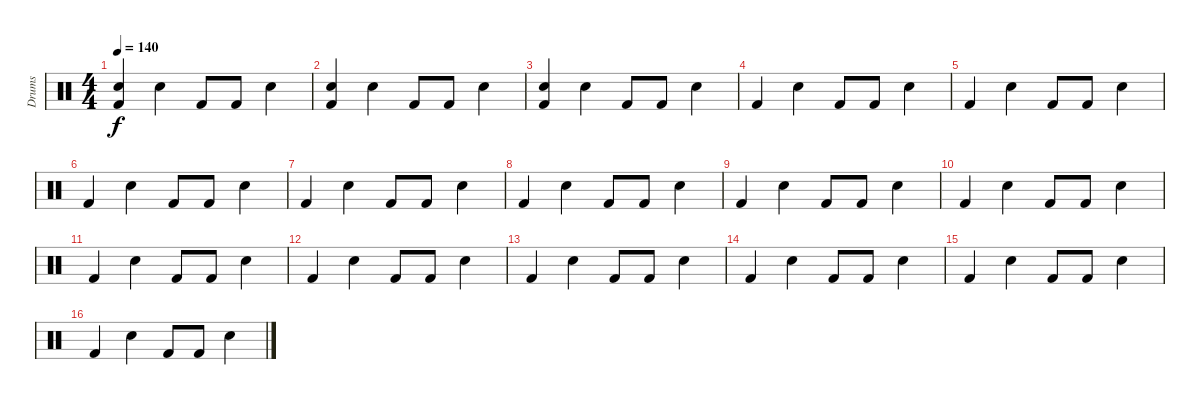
\track ("Drums" "Drums") {instrument percussion}
\staff {score}
\articulation defaults
\ts (4 4)
\tempo 140
\clef neutral
\ks c
("Kick (hit) 2" "Snare (hit) 2").4{dy f} "Snare (hit) 2".4 "Kick (hit) 2".8 "Kick (hit) 2".8 "Snare (hit) 2".4 |
("Kick (hit) 2" "Snare (hit) 2").4 "Snare (hit) 2".4 "Kick (hit) 2".8 "Kick (hit) 2".8 "Snare (hit) 2".4 |
("Kick (hit) 2" "Snare (hit) 2").4 "Snare (hit) 2".4 "Kick (hit) 2".8 "Kick (hit) 2".8 "Snare (hit) 2".4 |
"Kick (hit) 2".4 "Snare (hit) 2".4 "Kick (hit) 2".8 "Kick (hit) 2".8 "Snare (hit) 2".4 |
"Kick (hit) 2".4 "Snare (hit) 2".4 "Kick (hit) 2".8 "Kick (hit) 2".8 "Snare (hit) 2".4 |
"Kick (hit) 2".4 "Snare (hit) 2".4 "Kick (hit) 2".8 "Kick (hit) 2".8 "Snare (hit) 2".4 |
"Kick (hit) 2".4 "Snare (hit) 2".4 "Kick (hit) 2".8 "Kick (hit) 2".8 "Snare (hit) 2".4 |
"Kick (hit) 2".4 "Snare (hit) 2".4 "Kick (hit) 2".8 "Kick (hit) 2".8 "Snare (hit) 2".4 |
"Kick (hit) 2".4 "Snare (hit) 2".4 "Kick (hit) 2".8 "Kick (hit) 2".8 "Snare (hit) 2".4 |
"Kick (hit) 2".4 "Snare (hit) 2".4 "Kick (hit) 2".8 "Kick (hit) 2".8 "Snare (hit) 2".4 |
"Kick (hit) 2".4 "Snare (hit) 2".4 "Kick (hit) 2".8 "Kick (hit) 2".8 "Snare (hit) 2".4 |
"Kick (hit) 2".4 "Snare (hit) 2".4 "Kick (hit) 2".8 "Kick (hit) 2".8 "Snare (hit) 2".4 |
"Kick (hit) 2".4 "Snare (hit) 2".4 "Kick (hit) 2".8 "Kick (hit) 2".8 "Snare (hit) 2".4 |
"Kick (hit) 2".4 "Snare (hit) 2".4 "Kick (hit) 2".8 "Kick (hit) 2".8 "Snare (hit) 2".4 |
"Kick (hit) 2".4 "Snare (hit) 2".4 "Kick (hit) 2".8 "Kick (hit) 2".8 "Snare (hit) 2".4 |
"Kick (hit) 2".4 "Snare (hit) 2".4 "Kick (hit) 2".8 "Kick (hit) 2".8 "Snare (hit) 2".4
